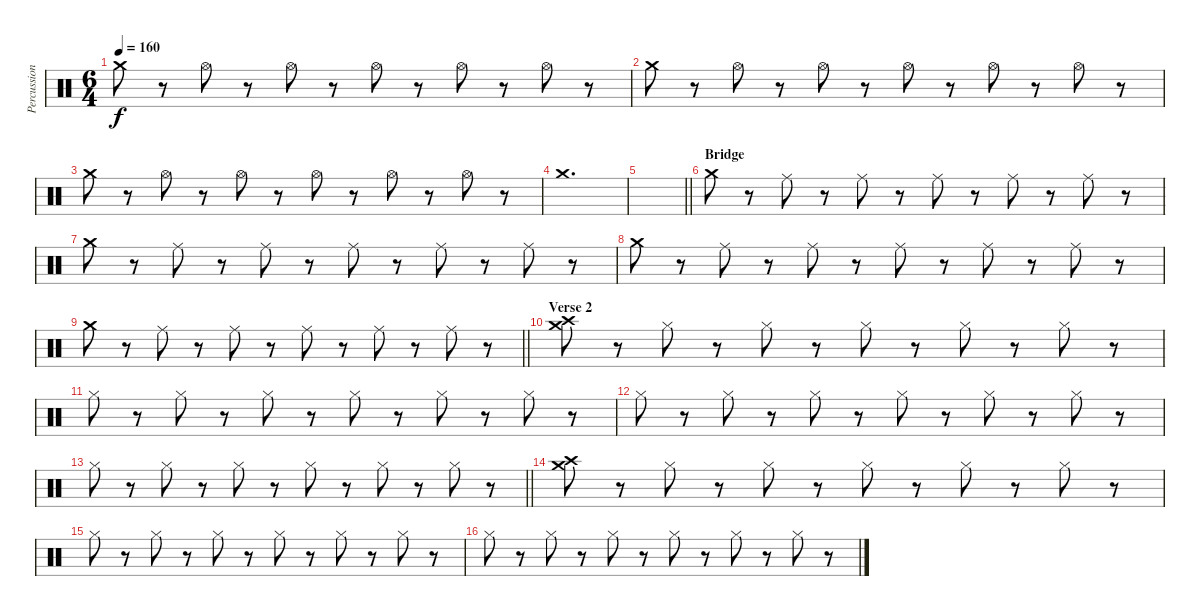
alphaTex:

\track ("Percussion" "Percussion") {instrument percussion}
\staff {score}
\articulation defaults
\ts (6 4)
\tempo 160
\clef neutral
\ks c "Crash medium (hit)".8{dy f}
r.8 "Hi-Hat (open)".8 r.8 "Hi-Hat (open)".8 r.8 "Hi-Hat (open)".8 r.8 "Hi-Hat (open)".8 r.8 "Hi-Hat (open)".8 r.8 |
"Crash medium (hit)".8 r.8 "Hi-Hat (open)".8 r.8 "Hi-Hat (open)".8 r.8 "Hi-Hat (open)".8 r.8 "Hi-Hat (open)".8 r.8 "Hi-Hat (open)".8 r.8 |
"Crash medium (hit)".8 r.8 "Hi-Hat (open)".8 r.8 "Hi-Hat (open)".8 r.8 "Hi-Hat (open)".8 r.8 "Hi-Hat (open)".8 r.8 "Hi-Hat (open)".8 r.8 |
"Crash medium (hit)".1{d} |
\barLineRight lightlight
|
\section ("" "Bridge")
"Crash medium (hit)".8 r.8 "Ride (middle)".8 r.8 "Ride (middle)".8 r.8 "Ride (middle)".8 r.8 "Ride (middle)".8 r.8 "Ride (middle)".8 r.8 |
"Crash medium (hit)".8 r.8 "Ride (middle)".8 r.8 "Ride (middle)".8 r.8 "Ride (middle)".8 r.8 "Ride (middle)".8 r.8 "Ride (middle)".8 r.8 |
"Crash medium (hit)".8 r.8 "Ride (middle)".8 r.8 "Ride (middle)".8 r.8 "Ride (middle)".8 r.8 "Ride (middle)".8 r.8 "Ride (middle)".8 r.8 |
\barLineRight lightlight "Crash medium (hit)".8
r.8 "Ride (middle)".8 r.8 "Ride (middle)".8 r.8 "Ride (middle)".8 r.8 "Ride (middle)".8 r.8 "Ride (middle)".8 r.8 |
\section ("" "Verse 2")
("Crash medium (hit)" "Crash high (hit)").8 r.8 "Hi-Hat (closed)".8 r.8 "Hi-Hat (closed)".8 r.8 "Hi-Hat (closed)".8 r.8 "Hi-Hat (closed)".8 r.8 "Hi-Hat (closed)".8 r.8 |
"Hi-Hat (closed)".8 r.8 "Hi-Hat (closed)".8 r.8 "Hi-Hat (closed)".8 r.8 "Hi-Hat (closed)".8 r.8 "Hi-Hat (closed)".8 r.8 "Hi-Hat (closed)".8 r.8 |
"Hi-Hat (closed)".8 r.8 "Hi-Hat (closed)".8 r.8 "Hi-Hat (closed)".8 r.8 "Hi-Hat (closed)".8 r.8 "Hi-Hat (closed)".8 r.8 "Hi-Hat (closed)".8 r.8 |
\barLineRight lightlight "Hi-Hat (closed)".8
r.8 "Hi-Hat (closed)".8 r.8 "Hi-Hat (closed)".8 r.8 "Hi-Hat (closed)".8 r.8 "Hi-Hat (closed)".8 r.8 "Hi-Hat (closed)".8 r.8 |
("Crash medium (hit)" "Crash high (hit)").8 r.8 "Hi-Hat (closed)".8 r.8 "Hi-Hat (closed)".8 r.8 "Hi-Hat (closed)".8 r.8 "Hi-Hat (closed)".8 r.8 "Hi-Hat (closed)".8 r.8 |
"Hi-Hat (closed)".8 r.8 "Hi-Hat (closed)".8 r.8 "Hi-Hat (closed)".8 r.8 "Hi-Hat (closed)".8 r.8 "Hi-Hat (closed)".8 r.8 "Hi-Hat (closed)".8 r.8 |
"Hi-Hat (closed)".8 r.8 "Hi-Hat (closed)".8 r.8 "Hi-Hat (closed)".8 r.8 "Hi-Hat (closed)".8 r.8 "Hi-Hat (closed)".8 r.8 "Hi-Hat (closed)".8 r.8
